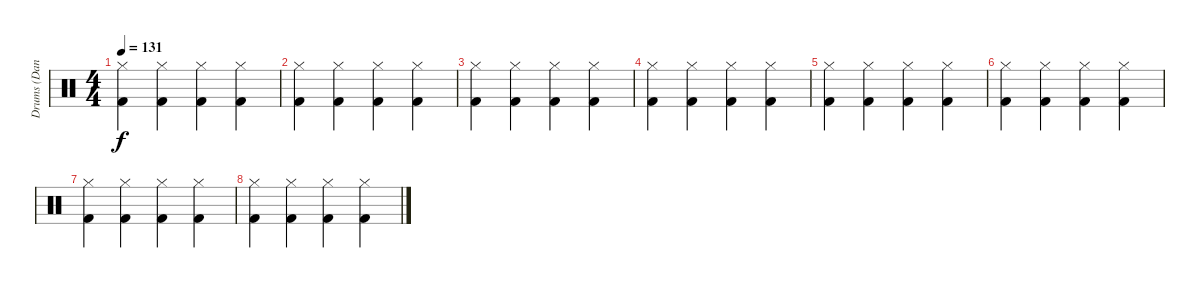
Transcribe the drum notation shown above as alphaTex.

\track ("Drums (Danny Young)" "Drums (Dan") {instrument percussion}
\staff {score}
\articulation defaults
\ts (4 4)
\tempo 131
\clef neutral
\ks c
("Hi-Hat (closed)" "Kick (hit) 2").4{dy f} ("Hi-Hat (closed)" "Kick (hit) 2").4 ("Hi-Hat (closed)" "Kick (hit) 2").4 ("Hi-Hat (closed)" "Kick (hit) 2").4 |
("Hi-Hat (closed)" "Kick (hit) 2").4 ("Hi-Hat (closed)" "Kick (hit) 2").4 ("Hi-Hat (closed)" "Kick (hit) 2").4 ("Hi-Hat (closed)" "Kick (hit) 2").4 |
("Hi-Hat (closed)" "Kick (hit) 2").4 ("Hi-Hat (closed)" "Kick (hit) 2").4 ("Hi-Hat (closed)" "Kick (hit) 2").4 ("Hi-Hat (closed)" "Kick (hit) 2").4 |
("Hi-Hat (closed)" "Kick (hit) 2").4 ("Hi-Hat (closed)" "Kick (hit) 2").4 ("Hi-Hat (closed)" "Kick (hit) 2").4 ("Hi-Hat (closed)" "Kick (hit) 2").4 |
("Hi-Hat (closed)" "Kick (hit) 2").4 ("Hi-Hat (closed)" "Kick (hit) 2").4 ("Hi-Hat (closed)" "Kick (hit) 2").4 ("Hi-Hat (closed)" "Kick (hit) 2").4 |
("Hi-Hat (closed)" "Kick (hit) 2").4 ("Hi-Hat (closed)" "Kick (hit) 2").4 ("Hi-Hat (closed)" "Kick (hit) 2").4 ("Hi-Hat (closed)" "Kick (hit) 2").4 |
("Hi-Hat (closed)" "Kick (hit) 2").4 ("Hi-Hat (closed)" "Kick (hit) 2").4 ("Hi-Hat (closed)" "Kick (hit) 2").4 ("Hi-Hat (closed)" "Kick (hit) 2").4 |
("Hi-Hat (closed)" "Kick (hit) 2").4 ("Hi-Hat (closed)" "Kick (hit) 2").4 ("Hi-Hat (closed)" "Kick (hit) 2").4 ("Hi-Hat (closed)" "Kick (hit) 2").4
